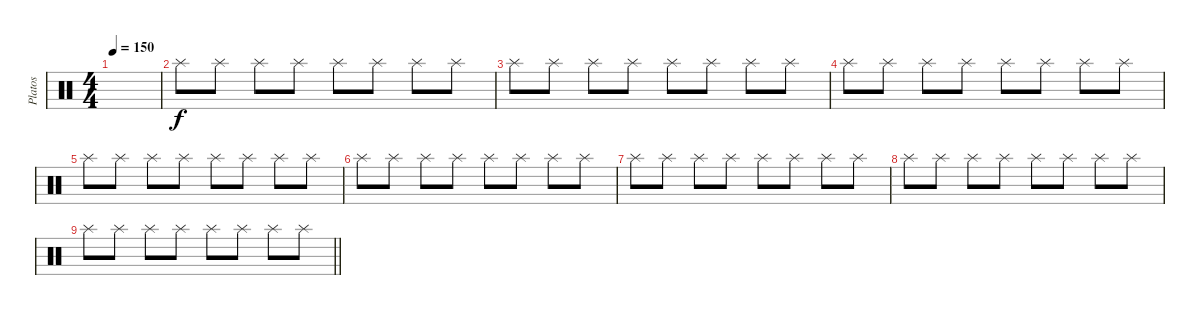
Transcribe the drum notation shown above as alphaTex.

\track ("Platos" "Platos") {instrument percussion}
\staff {score}
\articulation defaults
\ts (4 4)
\tempo 150
\clef neutral
\ks c
|
"Splash (hit)".8 "Splash (hit)".8 "Splash (hit)".8 "Splash (hit)".8 "Splash (hit)".8 "Splash (hit)".8 "Splash (hit)".8 "Splash (hit)".8 |
"Splash (hit)".8 "Splash (hit)".8 "Splash (hit)".8 "Splash (hit)".8 "Splash (hit)".8 "Splash (hit)".8 "Splash (hit)".8 "Splash (hit)".8 |
"Splash (hit)".8 "Splash (hit)".8 "Splash (hit)".8 "Splash (hit)".8 "Splash (hit)".8 "Splash (hit)".8 "Splash (hit)".8 "Splash (hit)".8 |
"Splash (hit)".8 "Splash (hit)".8 "Splash (hit)".8 "Splash (hit)".8 "Splash (hit)".8 "Splash (hit)".8 "Splash (hit)".8 "Splash (hit)".8 |
"Splash (hit)".8 "Splash (hit)".8 "Splash (hit)".8 "Splash (hit)".8 "Splash (hit)".8 "Splash (hit)".8 "Splash (hit)".8 "Splash (hit)".8 |
"Splash (hit)".8 "Splash (hit)".8 "Splash (hit)".8 "Splash (hit)".8 "Splash (hit)".8 "Splash (hit)".8 "Splash (hit)".8 "Splash (hit)".8 |
"Splash (hit)".8 "Splash (hit)".8 "Splash (hit)".8 "Splash (hit)".8 "Splash (hit)".8 "Splash (hit)".8 "Splash (hit)".8 "Splash (hit)".8 |
\barLineRight lightlight "Splash (hit)".8 "Splash (hit)".8 "Splash (hit)".8 "Splash (hit)".8 "Splash (hit)".8 "Splash (hit)".8 "Splash (hit)".8 "Splash (hit)".8
